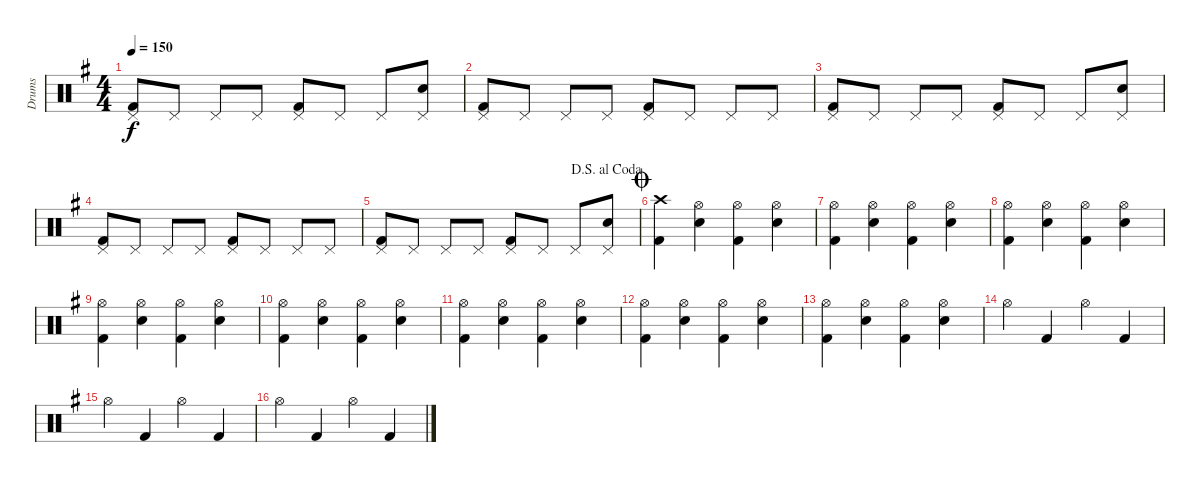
\track ("Drums" "Drums") {instrument percussion}
\staff {score}
\articulation defaults
\ts (4 4)
\tempo 150
\clef neutral
\ks g
("Pedal Hi-Hat (hit)" "Kick (hit) 2").8{dy f} "Pedal Hi-Hat (hit)".8 "Pedal Hi-Hat (hit)".8 "Pedal Hi-Hat (hit)".8 ("Pedal Hi-Hat (hit)" "Kick (hit) 2").8 "Pedal Hi-Hat (hit)".8 "Pedal Hi-Hat (hit)".8 ("Pedal Hi-Hat (hit)" "Electric Snare (hit)").8 |
("Pedal Hi-Hat (hit)" "Kick (hit) 2").8 "Pedal Hi-Hat (hit)".8 "Pedal Hi-Hat (hit)".8 "Pedal Hi-Hat (hit)".8 ("Pedal Hi-Hat (hit)" "Kick (hit) 2").8 "Pedal Hi-Hat (hit)".8 "Pedal Hi-Hat (hit)".8 "Pedal Hi-Hat (hit)".8 |
("Pedal Hi-Hat (hit)" "Kick (hit) 2").8 "Pedal Hi-Hat (hit)".8 "Pedal Hi-Hat (hit)".8 "Pedal Hi-Hat (hit)".8 ("Pedal Hi-Hat (hit)" "Kick (hit) 2").8 "Pedal Hi-Hat (hit)".8 "Pedal Hi-Hat (hit)".8 ("Pedal Hi-Hat (hit)" "Electric Snare (hit)").8 |
("Pedal Hi-Hat (hit)" "Kick (hit) 2").8 "Pedal Hi-Hat (hit)".8 "Pedal Hi-Hat (hit)".8 "Pedal Hi-Hat (hit)".8 ("Pedal Hi-Hat (hit)" "Kick (hit) 2").8 "Pedal Hi-Hat (hit)".8 "Pedal Hi-Hat (hit)".8 "Pedal Hi-Hat (hit)".8 |
\jump dalsegnoalcoda
("Pedal Hi-Hat (hit)" "Kick (hit) 2").8 "Pedal Hi-Hat (hit)".8 "Pedal Hi-Hat (hit)".8 "Pedal Hi-Hat (hit)".8 ("Pedal Hi-Hat (hit)" "Kick (hit) 2").8 "Pedal Hi-Hat (hit)".8 "Pedal Hi-Hat (hit)".8 ("Pedal Hi-Hat (hit)" "Electric Snare (hit)").8 |
\jump coda
("Crash high (hit)" "Kick (hit) 2").4 ("Hi-Hat (open)" "Electric Snare (hit)").4 ("Hi-Hat (open)" "Kick (hit) 2").4 ("Hi-Hat (open)" "Electric Snare (hit)").4 |
("Hi-Hat (open)" "Kick (hit) 2").4 ("Hi-Hat (open)" "Electric Snare (hit)").4 ("Hi-Hat (open)" "Kick (hit) 2").4 ("Hi-Hat (open)" "Electric Snare (hit)").4 |
("Hi-Hat (open)" "Kick (hit) 2").4 ("Hi-Hat (open)" "Electric Snare (hit)").4 ("Hi-Hat (open)" "Kick (hit) 2").4 ("Hi-Hat (open)" "Electric Snare (hit)").4 |
("Hi-Hat (open)" "Kick (hit) 2").4 ("Hi-Hat (open)" "Electric Snare (hit)").4 ("Hi-Hat (open)" "Kick (hit) 2").4 ("Hi-Hat (open)" "Electric Snare (hit)").4 |
("Hi-Hat (open)" "Kick (hit) 2").4 ("Hi-Hat (open)" "Electric Snare (hit)").4 ("Hi-Hat (open)" "Kick (hit) 2").4 ("Hi-Hat (open)" "Electric Snare (hit)").4 |
("Hi-Hat (open)" "Kick (hit) 2").4 ("Hi-Hat (open)" "Electric Snare (hit)").4 ("Hi-Hat (open)" "Kick (hit) 2").4 ("Hi-Hat (open)" "Electric Snare (hit)").4 |
("Hi-Hat (open)" "Kick (hit) 2").4 ("Hi-Hat (open)" "Electric Snare (hit)").4 ("Hi-Hat (open)" "Kick (hit) 2").4 ("Hi-Hat (open)" "Electric Snare (hit)").4 |
("Hi-Hat (open)" "Kick (hit) 2").4 ("Hi-Hat (open)" "Electric Snare (hit)").4 ("Hi-Hat (open)" "Kick (hit) 2").4 ("Hi-Hat (open)" "Electric Snare (hit)").4 |
"Hi-Hat (open)".4 "Kick (hit) 2".4 "Hi-Hat (open)".4 "Kick (hit) 2".4 |
"Hi-Hat (open)".4 "Kick (hit) 2".4 "Hi-Hat (open)".4 "Kick (hit) 2".4 |
"Hi-Hat (open)".4 "Kick (hit) 2".4 "Hi-Hat (open)".4 "Kick (hit) 2".4
